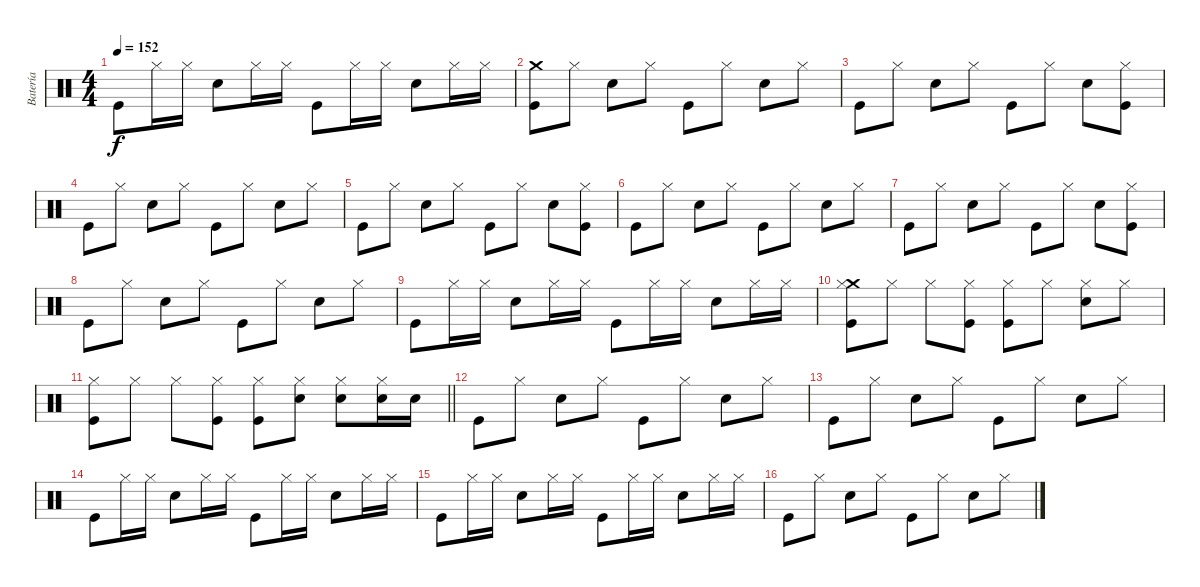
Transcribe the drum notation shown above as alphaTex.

\track ("Batería" "Batería") {instrument percussion}
\staff {score}
\articulation defaults
\ts (4 4)
\tempo 152
\clef neutral
\ks c "Kick (hit)".8{dy f} "Hi-Hat (closed)".16 "Hi-Hat (closed)".16 "Snare (hit) 2".8 "Hi-Hat (closed)".16 "Hi-Hat (closed)".16 "Kick (hit)".8 "Hi-Hat (closed)".16 "Hi-Hat (closed)".16 "Snare (hit) 2".8 "Hi-Hat (closed)".16 "Hi-Hat (closed)".16
|
("Crash medium (hit)" "Kick (hit)").8 "Hi-Hat (closed)".8 "Snare (hit) 2".8 "Hi-Hat (closed)".8 "Kick (hit)".8 "Hi-Hat (closed)".8 "Snare (hit) 2".8 "Hi-Hat (closed)".8 |
"Kick (hit)".8 "Hi-Hat (closed)".8 "Snare (hit) 2".8 "Hi-Hat (closed)".8 "Kick (hit)".8 "Hi-Hat (closed)".8 "Snare (hit) 2".8 ("Kick (hit)" "Hi-Hat (closed)").8 |
"Kick (hit)".8 "Hi-Hat (closed)".8 "Snare (hit) 2".8 "Hi-Hat (closed)".8 "Kick (hit)".8 "Hi-Hat (closed)".8 "Snare (hit) 2".8 "Hi-Hat (closed)".8 |
"Kick (hit)".8 "Hi-Hat (closed)".8 "Snare (hit) 2".8 "Hi-Hat (closed)".8 "Kick (hit)".8 "Hi-Hat (closed)".8 "Snare (hit) 2".8 ("Kick (hit)" "Hi-Hat (closed)").8 |
"Kick (hit)".8 "Hi-Hat (closed)".8 "Snare (hit) 2".8 "Hi-Hat (closed)".8 "Kick (hit)".8 "Hi-Hat (closed)".8 "Snare (hit) 2".8 "Hi-Hat (closed)".8 |
"Kick (hit)".8 "Hi-Hat (closed)".8 "Snare (hit) 2".8 "Hi-Hat (closed)".8 "Kick (hit)".8 "Hi-Hat (closed)".8 "Snare (hit) 2".8 ("Kick (hit)" "Hi-Hat (closed)").8 |
"Kick (hit)".8 "Hi-Hat (closed)".8 "Snare (hit) 2".8 "Hi-Hat (closed)".8 "Kick (hit)".8 "Hi-Hat (closed)".8 "Snare (hit) 2".8 "Hi-Hat (closed)".8 |
"Kick (hit)".8 "Hi-Hat (closed)".16 "Hi-Hat (closed)".16 "Snare (hit) 2".8 "Hi-Hat (closed)".16 "Hi-Hat (closed)".16 "Kick (hit)".8 "Hi-Hat (closed)".16 "Hi-Hat (closed)".16 "Snare (hit) 2".8 "Hi-Hat (closed)".16 "Hi-Hat (closed)".16 |
("Crash medium (hit)" "Hi-Hat (closed)" "Kick (hit)").8 "Hi-Hat (closed)".8 "Hi-Hat (closed)".8 ("Hi-Hat (closed)" "Kick (hit)").8 ("Hi-Hat (closed)" "Kick (hit)").8 "Hi-Hat (closed)".8 ("Hi-Hat (closed)" "Snare (hit) 2").8 "Hi-Hat (closed)".8 |
\barLineRight lightlight
("Hi-Hat (closed)" "Kick (hit)").8 "Hi-Hat (closed)".8 "Hi-Hat (closed)".8 ("Hi-Hat (closed)" "Kick (hit)").8 ("Hi-Hat (closed)" "Kick (hit)").8 ("Hi-Hat (closed)" "Snare (hit) 2").8 ("Hi-Hat (closed)" "Snare (hit) 2").8 ("Hi-Hat (closed)" "Snare (hit) 2").16 "Snare (hit) 2".16 |
"Kick (hit)".8 "Hi-Hat (closed)".8 "Snare (hit) 2".8 "Hi-Hat (closed)".8 "Kick (hit)".8 "Hi-Hat (closed)".8 "Snare (hit) 2".8 "Hi-Hat (closed)".8 |
"Kick (hit)".8 "Hi-Hat (closed)".8 "Snare (hit) 2".8 "Hi-Hat (closed)".8 "Kick (hit)".8 "Hi-Hat (closed)".8 "Snare (hit) 2".8 "Hi-Hat (closed)".8 |
"Kick (hit)".8 "Hi-Hat (closed)".16 "Hi-Hat (closed)".16 "Snare (hit) 2".8 "Hi-Hat (closed)".16 "Hi-Hat (closed)".16 "Kick (hit)".8 "Hi-Hat (closed)".16 "Hi-Hat (closed)".16 "Snare (hit) 2".8 "Hi-Hat (closed)".16 "Hi-Hat (closed)".16 |
"Kick (hit)".8 "Hi-Hat (closed)".16 "Hi-Hat (closed)".16 "Snare (hit) 2".8 "Hi-Hat (closed)".16 "Hi-Hat (closed)".16 "Kick (hit)".8 "Hi-Hat (closed)".16 "Hi-Hat (closed)".16 "Snare (hit) 2".8 "Hi-Hat (closed)".16 "Hi-Hat (closed)".16 |
"Kick (hit)".8 "Hi-Hat (closed)".8 "Snare (hit) 2".8 "Hi-Hat (closed)".8 "Kick (hit)".8 "Hi-Hat (closed)".8 "Snare (hit) 2".8 "Hi-Hat (closed)".8
